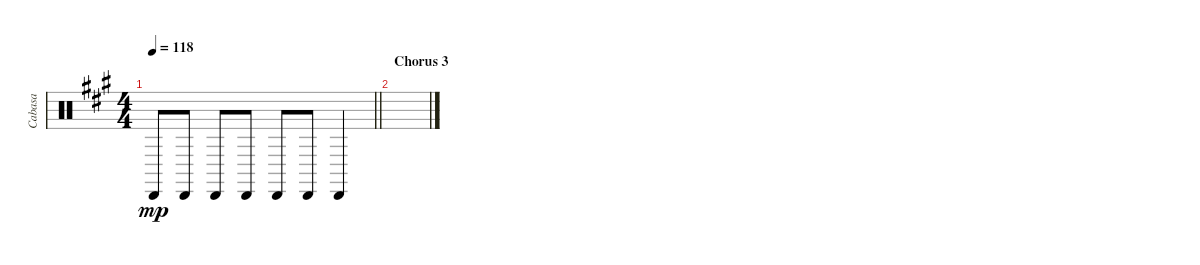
\track ("Cabasa" "Cabasa") {instrument percussion}
\staff {score}
\articulation defaults
\ts (4 4)
\tempo 118
\clef neutral
\barLineRight lightlight
\ks a "Cabasa (hit)".8{dy mp} "Cabasa (hit)".8 "Cabasa (hit)".8 "Cabasa (hit)".8 "Cabasa (hit)".8 "Cabasa (hit)".8 "Cabasa (hit)".4
|
\section ("" "Chorus 3")
